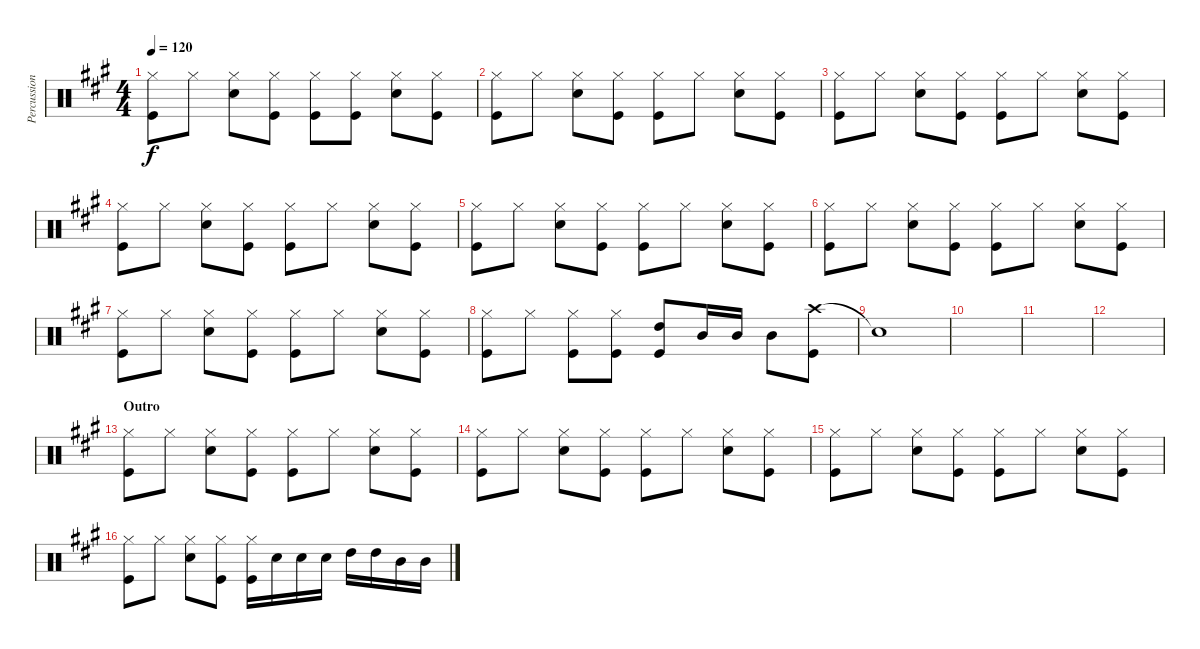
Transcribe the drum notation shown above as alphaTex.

\track ("Percussion" "Percussion") {instrument percussion}
\staff {score}
\articulation defaults
\ts (4 4)
\tempo 120
\clef neutral
\ks a
("Hi-Hat (closed)" "Kick (hit)").8{dy f} "Hi-Hat (closed)".8 ("Hi-Hat (closed)" "Snare (hit) 2").8 ("Hi-Hat (closed)" "Kick (hit)").8 ("Hi-Hat (closed)" "Kick (hit)").8 ("Hi-Hat (closed)" "Kick (hit)").8 ("Hi-Hat (closed)" "Snare (hit) 2").8 ("Hi-Hat (closed)" "Kick (hit)").8 |
("Hi-Hat (closed)" "Kick (hit)").8 "Hi-Hat (closed)".8 ("Hi-Hat (closed)" "Snare (hit) 2").8 ("Hi-Hat (closed)" "Kick (hit)").8 ("Hi-Hat (closed)" "Kick (hit)").8 "Hi-Hat (closed)".8 ("Hi-Hat (closed)" "Snare (hit) 2").8 ("Hi-Hat (closed)" "Kick (hit)").8 |
("Hi-Hat (closed)" "Kick (hit)").8 "Hi-Hat (closed)".8 ("Hi-Hat (closed)" "Snare (hit) 2").8 ("Hi-Hat (closed)" "Kick (hit)").8 ("Hi-Hat (closed)" "Kick (hit)").8 "Hi-Hat (closed)".8 ("Hi-Hat (closed)" "Snare (hit) 2").8 ("Hi-Hat (closed)" "Kick (hit)").8 |
("Hi-Hat (closed)" "Kick (hit)").8 "Hi-Hat (closed)".8 ("Hi-Hat (closed)" "Snare (hit) 2").8 ("Hi-Hat (closed)" "Kick (hit)").8 ("Hi-Hat (closed)" "Kick (hit)").8 "Hi-Hat (closed)".8 ("Hi-Hat (closed)" "Snare (hit) 2").8 ("Hi-Hat (closed)" "Kick (hit)").8 |
("Hi-Hat (closed)" "Kick (hit)").8 "Hi-Hat (closed)".8 ("Hi-Hat (closed)" "Snare (hit) 2").8 ("Hi-Hat (closed)" "Kick (hit)").8 ("Hi-Hat (closed)" "Kick (hit)").8 "Hi-Hat (closed)".8 ("Hi-Hat (closed)" "Snare (hit) 2").8 ("Hi-Hat (closed)" "Kick (hit)").8 |
("Hi-Hat (closed)" "Kick (hit)").8 "Hi-Hat (closed)".8 ("Hi-Hat (closed)" "Snare (hit) 2").8 ("Hi-Hat (closed)" "Kick (hit)").8 ("Hi-Hat (closed)" "Kick (hit)").8 "Hi-Hat (closed)".8 ("Hi-Hat (closed)" "Snare (hit) 2").8 ("Hi-Hat (closed)" "Kick (hit)").8 |
("Hi-Hat (closed)" "Kick (hit)").8 "Hi-Hat (closed)".8 ("Hi-Hat (closed)" "Snare (hit) 2").8 ("Hi-Hat (closed)" "Kick (hit)").8 ("Hi-Hat (closed)" "Kick (hit)").8 "Hi-Hat (closed)".8 ("Hi-Hat (closed)" "Snare (hit) 2").8 ("Hi-Hat (closed)" "Kick (hit)").8 |
("Hi-Hat (closed)" "Kick (hit)").8 "Hi-Hat (closed)".8 ("Hi-Hat (closed)" "Kick (hit)").8 ("Hi-Hat (closed)" "Kick (hit)").8 ("High Tom (hit)" "Kick (hit)").8 "Mid Tom (hit)".16 "Mid Tom (hit)".16 "Mid Tom (hit)".8 ("Crash high (hit)" "Kick (hit)").8 |
"Snare (hit)"{t}.1 |
|
|
|
\section ("" "Outro")
("Hi-Hat (closed)" "Kick (hit)").8 "Hi-Hat (closed)".8 ("Hi-Hat (closed)" "Snare (hit) 2").8 ("Hi-Hat (closed)" "Kick (hit)").8 ("Hi-Hat (closed)" "Kick (hit)").8 "Hi-Hat (closed)".8 ("Hi-Hat (closed)" "Snare (hit) 2").8 ("Hi-Hat (closed)" "Kick (hit)").8 |
("Hi-Hat (closed)" "Kick (hit)").8 "Hi-Hat (closed)".8 ("Hi-Hat (closed)" "Snare (hit) 2").8 ("Hi-Hat (closed)" "Kick (hit)").8 ("Hi-Hat (closed)" "Kick (hit)").8 "Hi-Hat (closed)".8 ("Hi-Hat (closed)" "Snare (hit) 2").8 ("Hi-Hat (closed)" "Kick (hit)").8 |
("Hi-Hat (closed)" "Kick (hit)").8 "Hi-Hat (closed)".8 ("Hi-Hat (closed)" "Snare (hit) 2").8 ("Hi-Hat (closed)" "Kick (hit)").8 ("Hi-Hat (closed)" "Kick (hit)").8 "Hi-Hat (closed)".8 ("Hi-Hat (closed)" "Snare (hit) 2").8 ("Hi-Hat (closed)" "Kick (hit)").8 |
("Hi-Hat (closed)" "Kick (hit)").8 "Hi-Hat (closed)".8 ("Hi-Hat (closed)" "Snare (hit) 2").8 ("Hi-Hat (closed)" "Kick (hit)").8 ("Hi-Hat (closed)" "Kick (hit)").16 "Snare (hit) 2".16 "Snare (hit) 2".16 "Snare (hit) 2".16 "High Tom (hit)".16 "High Tom (hit)".16 "Mid Tom (hit)".16 "Mid Tom (hit)".16
